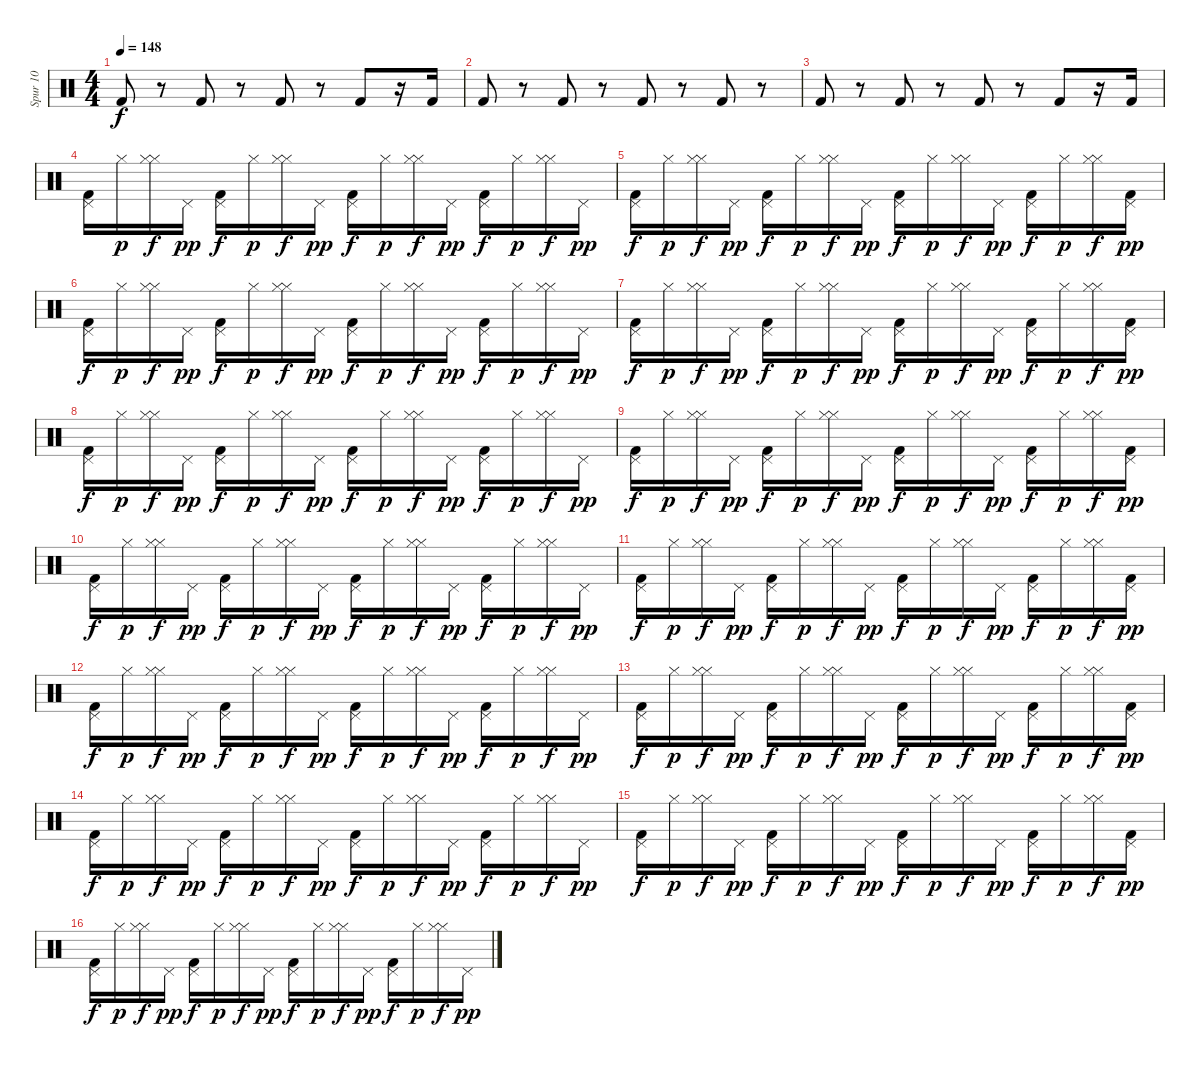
\track ("Spur 10" "Spur 10") {instrument percussion}
\staff {score}
\articulation defaults
\ts (4 4)
\tempo 148
\clef neutral
\ks c "Kick (hit) 2".8{dy f}
r.8 "Kick (hit) 2".8 r.8 "Kick (hit) 2".8 r.8 "Kick (hit) 2".8 r.16 "Kick (hit) 2".16 |
"Kick (hit) 2".8 r.8 "Kick (hit) 2".8 r.8 "Kick (hit) 2".8 r.8 "Kick (hit) 2".8 r.8 |
"Kick (hit) 2".8 r.8 "Kick (hit) 2".8 r.8 "Kick (hit) 2".8 r.8 "Kick (hit) 2".8 r.16 "Kick (hit) 2".16 |
("Pedal Hi-Hat (hit)" "Kick (hit) 2").16 "Hi-Hat (closed)".16{dy p} ("Hi-Hat (closed)" "Hi-Hat (closed)").16{dy f} "Pedal Hi-Hat (hit)".16{dy pp} ("Pedal Hi-Hat (hit)" "Kick (hit) 2").16{dy f} "Hi-Hat (closed)".16{dy p} ("Hi-Hat (closed)" "Hi-Hat (closed)").16{dy f} "Pedal Hi-Hat (hit)".16{dy pp} ("Pedal Hi-Hat (hit)" "Kick (hit) 2").16{dy f} "Hi-Hat (closed)".16{dy p} ("Hi-Hat (closed)" "Hi-Hat (closed)").16{dy f} "Pedal Hi-Hat (hit)".16{dy pp} ("Pedal Hi-Hat (hit)" "Kick (hit) 2").16{dy f} "Hi-Hat (closed)".16{dy p} ("Hi-Hat (closed)" "Hi-Hat (closed)").16{dy f} "Pedal Hi-Hat (hit)".16{dy pp} |
("Pedal Hi-Hat (hit)" "Kick (hit) 2").16{dy f} "Hi-Hat (closed)".16{dy p} ("Hi-Hat (closed)" "Hi-Hat (closed)").16{dy f} "Pedal Hi-Hat (hit)".16{dy pp} ("Pedal Hi-Hat (hit)" "Kick (hit) 2").16{dy f} "Hi-Hat (closed)".16{dy p} ("Hi-Hat (closed)" "Hi-Hat (closed)").16{dy f} "Pedal Hi-Hat (hit)".16{dy pp} ("Pedal Hi-Hat (hit)" "Kick (hit) 2").16{dy f} "Hi-Hat (closed)".16{dy p} ("Hi-Hat (closed)" "Hi-Hat (closed)").16{dy f} "Pedal Hi-Hat (hit)".16{dy pp} ("Pedal Hi-Hat (hit)" "Kick (hit) 2").16{dy f} "Hi-Hat (closed)".16{dy p} ("Hi-Hat (closed)" "Hi-Hat (closed)").16{dy f} ("Kick (hit) 2" "Pedal Hi-Hat (hit)").16{dy pp} |
("Pedal Hi-Hat (hit)" "Kick (hit) 2").16{dy f} "Hi-Hat (closed)".16{dy p} ("Hi-Hat (closed)" "Hi-Hat (closed)").16{dy f} "Pedal Hi-Hat (hit)".16{dy pp} ("Pedal Hi-Hat (hit)" "Kick (hit) 2").16{dy f} "Hi-Hat (closed)".16{dy p} ("Hi-Hat (closed)" "Hi-Hat (closed)").16{dy f} "Pedal Hi-Hat (hit)".16{dy pp} ("Pedal Hi-Hat (hit)" "Kick (hit) 2").16{dy f} "Hi-Hat (closed)".16{dy p} ("Hi-Hat (closed)" "Hi-Hat (closed)").16{dy f} "Pedal Hi-Hat (hit)".16{dy pp} ("Pedal Hi-Hat (hit)" "Kick (hit) 2").16{dy f} "Hi-Hat (closed)".16{dy p} ("Hi-Hat (closed)" "Hi-Hat (closed)").16{dy f} "Pedal Hi-Hat (hit)".16{dy pp} |
("Pedal Hi-Hat (hit)" "Kick (hit) 2").16{dy f} "Hi-Hat (closed)".16{dy p} ("Hi-Hat (closed)" "Hi-Hat (closed)").16{dy f} "Pedal Hi-Hat (hit)".16{dy pp} ("Pedal Hi-Hat (hit)" "Kick (hit) 2").16{dy f} "Hi-Hat (closed)".16{dy p} ("Hi-Hat (closed)" "Hi-Hat (closed)").16{dy f} "Pedal Hi-Hat (hit)".16{dy pp} ("Pedal Hi-Hat (hit)" "Kick (hit) 2").16{dy f} "Hi-Hat (closed)".16{dy p} ("Hi-Hat (closed)" "Hi-Hat (closed)").16{dy f} "Pedal Hi-Hat (hit)".16{dy pp} ("Pedal Hi-Hat (hit)" "Kick (hit) 2").16{dy f} "Hi-Hat (closed)".16{dy p} ("Hi-Hat (closed)" "Hi-Hat (closed)").16{dy f} ("Kick (hit) 2" "Pedal Hi-Hat (hit)").16{dy pp} |
("Pedal Hi-Hat (hit)" "Kick (hit) 2").16{dy f} "Hi-Hat (closed)".16{dy p} ("Hi-Hat (closed)" "Hi-Hat (closed)").16{dy f} "Pedal Hi-Hat (hit)".16{dy pp} ("Pedal Hi-Hat (hit)" "Kick (hit) 2").16{dy f} "Hi-Hat (closed)".16{dy p} ("Hi-Hat (closed)" "Hi-Hat (closed)").16{dy f} "Pedal Hi-Hat (hit)".16{dy pp} ("Pedal Hi-Hat (hit)" "Kick (hit) 2").16{dy f} "Hi-Hat (closed)".16{dy p} ("Hi-Hat (closed)" "Hi-Hat (closed)").16{dy f} "Pedal Hi-Hat (hit)".16{dy pp} ("Pedal Hi-Hat (hit)" "Kick (hit) 2").16{dy f} "Hi-Hat (closed)".16{dy p} ("Hi-Hat (closed)" "Hi-Hat (closed)").16{dy f} "Pedal Hi-Hat (hit)".16{dy pp} |
("Pedal Hi-Hat (hit)" "Kick (hit) 2").16{dy f} "Hi-Hat (closed)".16{dy p} ("Hi-Hat (closed)" "Hi-Hat (closed)").16{dy f} "Pedal Hi-Hat (hit)".16{dy pp} ("Pedal Hi-Hat (hit)" "Kick (hit) 2").16{dy f} "Hi-Hat (closed)".16{dy p} ("Hi-Hat (closed)" "Hi-Hat (closed)").16{dy f} "Pedal Hi-Hat (hit)".16{dy pp} ("Pedal Hi-Hat (hit)" "Kick (hit) 2").16{dy f} "Hi-Hat (closed)".16{dy p} ("Hi-Hat (closed)" "Hi-Hat (closed)").16{dy f} "Pedal Hi-Hat (hit)".16{dy pp} ("Pedal Hi-Hat (hit)" "Kick (hit) 2").16{dy f} "Hi-Hat (closed)".16{dy p} ("Hi-Hat (closed)" "Hi-Hat (closed)").16{dy f} ("Kick (hit) 2" "Pedal Hi-Hat (hit)").16{dy pp} |
("Pedal Hi-Hat (hit)" "Kick (hit) 2").16{dy f} "Hi-Hat (closed)".16{dy p} ("Hi-Hat (closed)" "Hi-Hat (closed)").16{dy f} "Pedal Hi-Hat (hit)".16{dy pp} ("Pedal Hi-Hat (hit)" "Kick (hit) 2").16{dy f} "Hi-Hat (closed)".16{dy p} ("Hi-Hat (closed)" "Hi-Hat (closed)").16{dy f} "Pedal Hi-Hat (hit)".16{dy pp} ("Pedal Hi-Hat (hit)" "Kick (hit) 2").16{dy f} "Hi-Hat (closed)".16{dy p} ("Hi-Hat (closed)" "Hi-Hat (closed)").16{dy f} "Pedal Hi-Hat (hit)".16{dy pp} ("Pedal Hi-Hat (hit)" "Kick (hit) 2").16{dy f} "Hi-Hat (closed)".16{dy p} ("Hi-Hat (closed)" "Hi-Hat (closed)").16{dy f} "Pedal Hi-Hat (hit)".16{dy pp} |
("Pedal Hi-Hat (hit)" "Kick (hit) 2").16{dy f} "Hi-Hat (closed)".16{dy p} ("Hi-Hat (closed)" "Hi-Hat (closed)").16{dy f} "Pedal Hi-Hat (hit)".16{dy pp} ("Pedal Hi-Hat (hit)" "Kick (hit) 2").16{dy f} "Hi-Hat (closed)".16{dy p} ("Hi-Hat (closed)" "Hi-Hat (closed)").16{dy f} "Pedal Hi-Hat (hit)".16{dy pp} ("Pedal Hi-Hat (hit)" "Kick (hit) 2").16{dy f} "Hi-Hat (closed)".16{dy p} ("Hi-Hat (closed)" "Hi-Hat (closed)").16{dy f} "Pedal Hi-Hat (hit)".16{dy pp} ("Pedal Hi-Hat (hit)" "Kick (hit) 2").16{dy f} "Hi-Hat (closed)".16{dy p} ("Hi-Hat (closed)" "Hi-Hat (closed)").16{dy f} ("Kick (hit) 2" "Pedal Hi-Hat (hit)").16{dy pp} |
("Pedal Hi-Hat (hit)" "Kick (hit) 2").16{dy f} "Hi-Hat (closed)".16{dy p} ("Hi-Hat (closed)" "Hi-Hat (closed)").16{dy f} "Pedal Hi-Hat (hit)".16{dy pp} ("Pedal Hi-Hat (hit)" "Kick (hit) 2").16{dy f} "Hi-Hat (closed)".16{dy p} ("Hi-Hat (closed)" "Hi-Hat (closed)").16{dy f} "Pedal Hi-Hat (hit)".16{dy pp} ("Pedal Hi-Hat (hit)" "Kick (hit) 2").16{dy f} "Hi-Hat (closed)".16{dy p} ("Hi-Hat (closed)" "Hi-Hat (closed)").16{dy f} "Pedal Hi-Hat (hit)".16{dy pp} ("Pedal Hi-Hat (hit)" "Kick (hit) 2").16{dy f} "Hi-Hat (closed)".16{dy p} ("Hi-Hat (closed)" "Hi-Hat (closed)").16{dy f} "Pedal Hi-Hat (hit)".16{dy pp} |
("Pedal Hi-Hat (hit)" "Kick (hit) 2").16{dy f} "Hi-Hat (closed)".16{dy p} ("Hi-Hat (closed)" "Hi-Hat (closed)").16{dy f} "Pedal Hi-Hat (hit)".16{dy pp} ("Pedal Hi-Hat (hit)" "Kick (hit) 2").16{dy f} "Hi-Hat (closed)".16{dy p} ("Hi-Hat (closed)" "Hi-Hat (closed)").16{dy f} "Pedal Hi-Hat (hit)".16{dy pp} ("Pedal Hi-Hat (hit)" "Kick (hit) 2").16{dy f} "Hi-Hat (closed)".16{dy p} ("Hi-Hat (closed)" "Hi-Hat (closed)").16{dy f} "Pedal Hi-Hat (hit)".16{dy pp} ("Pedal Hi-Hat (hit)" "Kick (hit) 2").16{dy f} "Hi-Hat (closed)".16{dy p} ("Hi-Hat (closed)" "Hi-Hat (closed)").16{dy f} ("Kick (hit) 2" "Pedal Hi-Hat (hit)").16{dy pp} |
("Pedal Hi-Hat (hit)" "Kick (hit) 2").16{dy f} "Hi-Hat (closed)".16{dy p} ("Hi-Hat (closed)" "Hi-Hat (closed)").16{dy f} "Pedal Hi-Hat (hit)".16{dy pp} ("Pedal Hi-Hat (hit)" "Kick (hit) 2").16{dy f} "Hi-Hat (closed)".16{dy p} ("Hi-Hat (closed)" "Hi-Hat (closed)").16{dy f} "Pedal Hi-Hat (hit)".16{dy pp} ("Pedal Hi-Hat (hit)" "Kick (hit) 2").16{dy f} "Hi-Hat (closed)".16{dy p} ("Hi-Hat (closed)" "Hi-Hat (closed)").16{dy f} "Pedal Hi-Hat (hit)".16{dy pp} ("Pedal Hi-Hat (hit)" "Kick (hit) 2").16{dy f} "Hi-Hat (closed)".16{dy p} ("Hi-Hat (closed)" "Hi-Hat (closed)").16{dy f} "Pedal Hi-Hat (hit)".16{dy pp} |
("Pedal Hi-Hat (hit)" "Kick (hit) 2").16{dy f} "Hi-Hat (closed)".16{dy p} ("Hi-Hat (closed)" "Hi-Hat (closed)").16{dy f} "Pedal Hi-Hat (hit)".16{dy pp} ("Pedal Hi-Hat (hit)" "Kick (hit) 2").16{dy f} "Hi-Hat (closed)".16{dy p} ("Hi-Hat (closed)" "Hi-Hat (closed)").16{dy f} "Pedal Hi-Hat (hit)".16{dy pp} ("Pedal Hi-Hat (hit)" "Kick (hit) 2").16{dy f} "Hi-Hat (closed)".16{dy p} ("Hi-Hat (closed)" "Hi-Hat (closed)").16{dy f} "Pedal Hi-Hat (hit)".16{dy pp} ("Pedal Hi-Hat (hit)" "Kick (hit) 2").16{dy f} "Hi-Hat (closed)".16{dy p} ("Hi-Hat (closed)" "Hi-Hat (closed)").16{dy f} ("Kick (hit) 2" "Pedal Hi-Hat (hit)").16{dy pp} |
("Pedal Hi-Hat (hit)" "Kick (hit) 2").16{dy f} "Hi-Hat (closed)".16{dy p} ("Hi-Hat (closed)" "Hi-Hat (closed)").16{dy f} "Pedal Hi-Hat (hit)".16{dy pp} ("Pedal Hi-Hat (hit)" "Kick (hit) 2").16{dy f} "Hi-Hat (closed)".16{dy p} ("Hi-Hat (closed)" "Hi-Hat (closed)").16{dy f} "Pedal Hi-Hat (hit)".16{dy pp} ("Pedal Hi-Hat (hit)" "Kick (hit) 2").16{dy f} "Hi-Hat (closed)".16{dy p} ("Hi-Hat (closed)" "Hi-Hat (closed)").16{dy f} "Pedal Hi-Hat (hit)".16{dy pp} ("Pedal Hi-Hat (hit)" "Kick (hit) 2").16{dy f} "Hi-Hat (closed)".16{dy p} ("Hi-Hat (closed)" "Hi-Hat (closed)").16{dy f} "Pedal Hi-Hat (hit)".16{dy pp}
